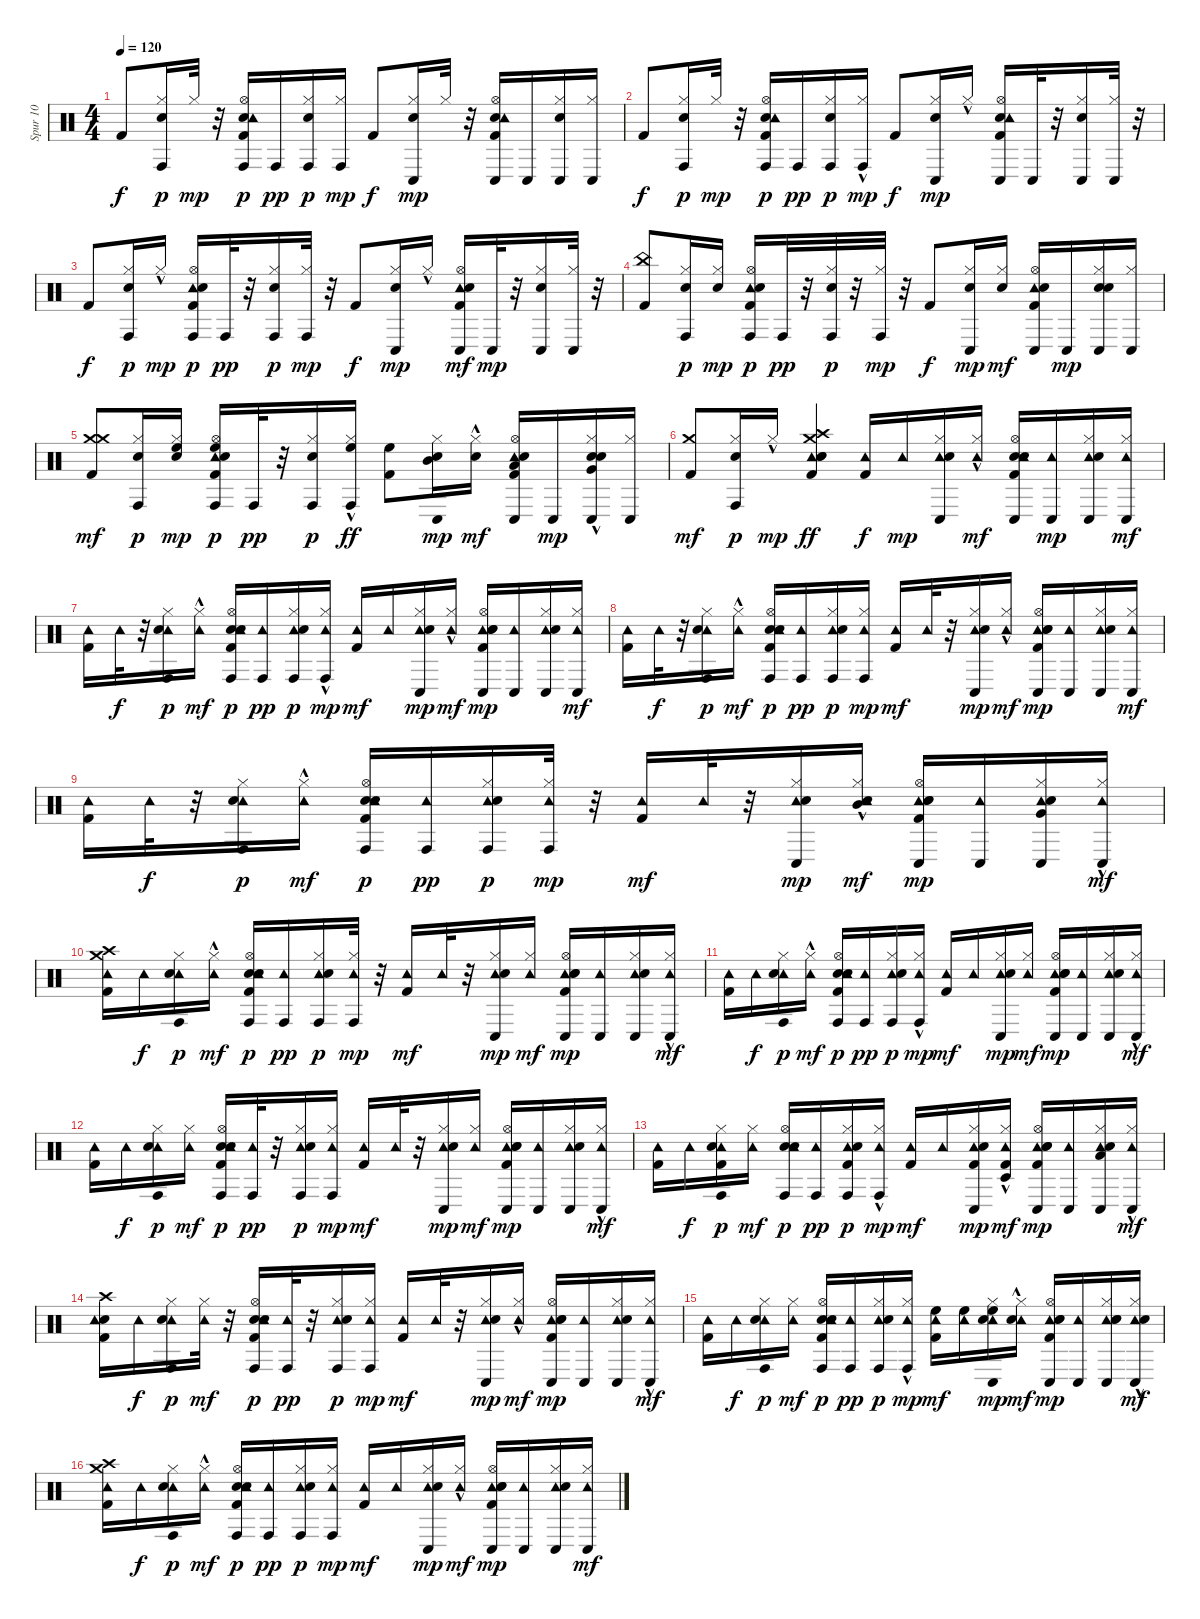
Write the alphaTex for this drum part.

\track ("Spur 10" "Spur 10") {instrument percussion}
\staff {score}
\articulation defaults
\ts (4 4)
\tempo 120
\clef neutral
\ks c "Kick (hit) 2".8{dy f}
("Hi-Hat (closed)" "Snare (hit)" "Conga high (hit)").16{dy p} "Hi-Hat (closed)".32{dy mp} r.32 ("Hi-Hat (open)" "Snare (hit) 2" "Tambourine (hit)" "Kick (hit) 2" "Conga high (hit)").16{dy p} "Conga high (hit)".16{dy pp} ("Hi-Hat (closed)" "Snare (hit)" "Conga high (hit)").16{dy p} ("Hi-Hat (closed)" "Conga high (hit)").16{dy mp} "Kick (hit) 2".8{dy f} ("Hi-Hat (closed)" "Snare (hit)" "Conga low (hit)").16{dy mp} "Hi-Hat (closed)".32 r.32 ("Hi-Hat (open)" "Snare (hit) 2" "Kick (hit) 2" "Tambourine (hit)" "Conga low (hit)").16 "Conga low (hit)".16 ("Hi-Hat (closed)" "Snare (hit)" "Conga low (hit)").16 ("Conga low (hit)" "Hi-Hat (closed)").16 |
"Kick (hit) 2".8{dy f} ("Hi-Hat (closed)" "Snare (hit)" "Conga high (hit)").16{dy p} "Hi-Hat (closed)".32{dy mp} r.32 ("Hi-Hat (open)" "Snare (hit) 2" "Tambourine (hit)" "Kick (hit) 2" "Conga high (hit)").16{dy p} "Conga high (hit)".16{dy pp} ("Hi-Hat (closed)" "Snare (hit)" "Conga high (hit)").16{dy p} ("Hi-Hat (closed)"{hac} "Conga high (hit)").16{dy mp} "Kick (hit) 2".8{dy f} ("Hi-Hat (closed)" "Snare (hit)" "Conga low (hit)").16{dy mp} "Hi-Hat (closed)"{hac}.16 ("Hi-Hat (open)" "Snare (hit) 2" "Kick (hit) 2" "Tambourine (hit)" "Conga low (hit)").16 "Conga low (hit)".32 r.32 ("Hi-Hat (closed)" "Snare (hit)" "Conga low (hit)").16 ("Conga low (hit)" "Hi-Hat (closed)").32 r.32 |
"Kick (hit) 2".8{dy f} ("Hi-Hat (closed)" "Snare (hit)" "Conga high (hit)").16{dy p} "Hi-Hat (closed)"{hac}.16{dy mp} ("Hi-Hat (open)" "Tambourine (hit)" "Kick (hit) 2" "Snare (hit) 2" "Conga high (hit)").16{dy p} "Conga high (hit)".32{dy pp} r.32 ("Hi-Hat (closed)" "Snare (hit)" "Conga high (hit)").16{dy p} ("Hi-Hat (closed)" "Conga high (hit)").32{dy mp} r.32 "Kick (hit) 2".8{dy f} ("Hi-Hat (closed)" "Snare (hit)" "Conga low (hit)").16{dy mp} "Hi-Hat (closed)"{hac}.16 ("Hi-Hat (open)" "Kick (hit) 2" "Tambourine (hit)" "Conga low (hit)" "Snare (hit) 2").16{dy mf} "Conga low (hit)".32{dy mp} r.32 ("Hi-Hat (closed)" "Snare (hit)" "Conga low (hit)").16 ("Conga low (hit)" "Hi-Hat (closed)").32 r.32 |
("China (hit)" "Kick (hit) 2").8 ("Hi-Hat (closed)" "Snare (hit)" "Conga high (hit)").16{dy p} ("Hi-Hat (closed)" "Snare (hit) 2").16{dy mp} ("Hi-Hat (open)" "Tambourine (hit)" "Kick (hit) 2" "Snare (hit) 2" "Conga high (hit)").16{dy p} "Conga high (hit)".32{dy pp} r.32 ("Hi-Hat (closed)" "Snare (hit)" "Conga high (hit)").32{dy p} r.32 ("Hi-Hat (closed)" "Conga high (hit)").32{dy mp} r.32 "Kick (hit) 2".8{dy f} ("Hi-Hat (closed)" "Snare (hit)" "Conga low (hit)").16{dy mp} ("Hi-Hat (closed)" "Snare (hit) 2").16{dy mf} ("Hi-Hat (open)" "Kick (hit) 2" "Tambourine (hit)" "Conga low (hit)" "Snare (hit) 2").16 "Conga low (hit)".16{dy mp} ("Hi-Hat (closed)" "Snare (hit)" "Conga low (hit)" "Snare (hit) 2").16 ("Conga low (hit)" "Hi-Hat (closed)").16 |
("Crash medium (hit)" "Crash medium (hit)" "Kick (hit) 2").8{dy mf} ("Hi-Hat (closed)" "Snare (hit)" "Conga high (hit)").16{dy p} ("Hi-Hat (closed)" "Snare (hit) 2" "High Floor Tom (hit)").16{dy mp} ("High Floor Tom (hit)" "Hi-Hat (open)" "Tambourine (hit)" "Kick (hit) 2" "Snare (hit) 2" "Conga high (hit)").16{dy p} "Conga high (hit)".32{dy pp} r.32 ("Hi-Hat (closed)" "Snare (hit)" "Conga high (hit)").16{dy p} ("Hi-Hat (closed)"{hac} "Conga high (hit)" "High Floor Tom (hit)").16{dy ff} ("High Floor Tom (hit)" "Kick (hit) 2").8 ("Hi-Hat (closed)" "Snare (hit)" "Conga low (hit)" "Mid Tom (hit)").16{dy mp} ("Hi-Hat (closed)"{hac} "Snare (hit) 2").16{dy mf} ("Hi-Hat (open)" "Low Tom (hit)" "Kick (hit) 2" "Tambourine (hit)" "Conga low (hit)" "Snare (hit) 2").16 "Conga low (hit)".16{dy mp} ("Very Low Tom (hit)" "Hi-Hat (closed)" "Snare (hit)" "Conga low (hit)" "Snare (hit) 2"{hac}).16 ("Conga low (hit)" "Hi-Hat (closed)").16 |
("Crash medium (hit)" "Kick (hit) 2").8{dy mf} ("Hi-Hat (closed)" "Snare (hit)" "Conga high (hit)").16{dy p} "Hi-Hat (closed)"{hac}.16{dy mp} ("Crash high (hit)" "Tambourine (hit)" "Hand Clap (hit)" "Kick (hit) 2" "Snare (hit) 2" "Crash medium (hit)").4{dy ff} ("Tambourine (hit)" "Kick (hit) 2").16{dy f} "Tambourine (hit)".16{dy mp} ("Hi-Hat (closed)" "Tambourine (hit)" "Snare (hit)" "Conga low (hit)").16 ("Hi-Hat (closed)"{hac} "Tambourine (hit)").16{dy mf} ("Snare (hit) 2" "Hi-Hat (open)" "Tambourine (hit)" "Hand Clap (hit)" "Kick (hit) 2" "Conga low (hit)").16 ("Tambourine (hit)" "Conga low (hit)").16{dy mp} ("Hi-Hat (closed)" "Tambourine (hit)" "Snare (hit)" "Conga low (hit)").16 ("Conga low (hit)" "Hi-Hat (closed)" "Tambourine (hit)").16{dy mf} |
("Tambourine (hit)" "Kick (hit) 2").16 "Tambourine (hit)".32{dy f} r.32 ("Hi-Hat (closed)" "Tambourine (hit)" "Snare (hit)" "Conga high (hit)").16{dy p} ("Hi-Hat (closed)"{hac} "Tambourine (hit)").16{dy mf} ("Hand Clap (hit)" "Hi-Hat (open)" "Tambourine (hit)" "Snare (hit) 2" "Kick (hit) 2" "Conga high (hit)").16{dy p} ("Tambourine (hit)" "Conga high (hit)").16{dy pp} ("Hi-Hat (closed)" "Tambourine (hit)" "Snare (hit)" "Conga high (hit)").16{dy p} ("Hi-Hat (closed)"{hac} "Tambourine (hit)" "Conga high (hit)").16{dy mp} ("Tambourine (hit)" "Kick (hit) 2").16{dy mf} "Tambourine (hit)".16 ("Hi-Hat (closed)" "Tambourine (hit)" "Snare (hit)" "Conga low (hit)").16{dy mp} ("Hi-Hat (closed)"{hac} "Tambourine (hit)").16{dy mf} ("Hi-Hat (open)" "Tambourine (hit)" "Hand Clap (hit)" "Kick (hit) 2" "Conga low (hit)" "Snare (hit) 2").16{dy mp} ("Tambourine (hit)" "Conga low (hit)").16 ("Hi-Hat (closed)" "Tambourine (hit)" "Snare (hit)" "Conga low (hit)").16 ("Conga low (hit)" "Hi-Hat (closed)" "Tambourine (hit)").16{dy mf} |
("Tambourine (hit)" "Kick (hit) 2").16 "Tambourine (hit)".32{dy f} r.32 ("Hi-Hat (closed)" "Tambourine (hit)" "Snare (hit)" "Conga high (hit)").16{dy p} ("Hi-Hat (closed)"{hac} "Tambourine (hit)").16{dy mf} ("Hand Clap (hit)" "Hi-Hat (open)" "Tambourine (hit)" "Snare (hit) 2" "Kick (hit) 2" "Conga high (hit)").16{dy p} ("Tambourine (hit)" "Conga high (hit)").16{dy pp} ("Hi-Hat (closed)" "Tambourine (hit)" "Snare (hit)" "Conga high (hit)").16{dy p} ("Hi-Hat (closed)" "Tambourine (hit)" "Conga high (hit)").16{dy mp} ("Tambourine (hit)" "Kick (hit) 2").16{dy mf} "Tambourine (hit)".32 r.32 ("Hi-Hat (closed)" "Tambourine (hit)" "Snare (hit)" "Conga low (hit)").16{dy mp} ("Hi-Hat (closed)"{hac} "Tambourine (hit)").16{dy mf} ("Hi-Hat (open)" "Tambourine (hit)" "Hand Clap (hit)" "Kick (hit) 2" "Conga low (hit)" "Snare (hit) 2").16{dy mp} ("Tambourine (hit)" "Conga low (hit)").16 ("Hi-Hat (closed)" "Tambourine (hit)" "Snare (hit)" "Conga low (hit)").16 ("Conga low (hit)" "Hi-Hat (closed)" "Tambourine (hit)").16{dy mf} |
("Tambourine (hit)" "Kick (hit) 2").16 "Tambourine (hit)".32{dy f} r.32 ("Hi-Hat (closed)" "Tambourine (hit)" "Snare (hit)" "Conga high (hit)").16{dy p} ("Hi-Hat (closed)"{hac} "Tambourine (hit)").16{dy mf} ("Hand Clap (hit)" "Hi-Hat (open)" "Tambourine (hit)" "Snare (hit) 2" "Kick (hit) 2" "Conga high (hit)").16{dy p} ("Tambourine (hit)" "Conga high (hit)").16{dy pp} ("Hi-Hat (closed)" "Tambourine (hit)" "Snare (hit)" "Conga high (hit)").16{dy p} ("Hi-Hat (closed)" "Tambourine (hit)" "Conga high (hit)").32{dy mp} r.32 ("Tambourine (hit)" "Kick (hit) 2").16{dy mf} "Tambourine (hit)".32 r.32 ("Hi-Hat (closed)" "Tambourine (hit)" "Snare (hit)" "Conga low (hit)").16{dy mp} ("Hi-Hat (closed)"{hac} "Tambourine (hit)" "Mid Tom (hit)" "Snare (hit) 2").16{dy mf} ("Hi-Hat (open)" "Tambourine (hit)" "Hand Clap (hit)" "Kick (hit) 2" "Conga low (hit)" "Snare (hit) 2").16{dy mp} ("Tambourine (hit)" "Conga low (hit)").16 ("Hi-Hat (closed)" "Tambourine (hit)" "Snare (hit)" "Conga low (hit)" "Very Low Tom (hit)").16 ("Conga low (hit)" "Hi-Hat (closed)"{hac} "Tambourine (hit)").16{dy mf} |
("Crash high (hit)" "Crash medium (hit)" "Tambourine (hit)" "Kick (hit) 2").16 "Tambourine (hit)".16{dy f} ("Hi-Hat (closed)" "Tambourine (hit)" "Snare (hit)" "Conga high (hit)").16{dy p} ("Hi-Hat (closed)"{hac} "Tambourine (hit)").16{dy mf} ("Hand Clap (hit)" "Hi-Hat (open)" "Tambourine (hit)" "Snare (hit) 2" "Kick (hit) 2" "Conga high (hit)").16{dy p} ("Tambourine (hit)" "Conga high (hit)").16{dy pp} ("Hi-Hat (closed)" "Tambourine (hit)" "Snare (hit)" "Conga high (hit)").16{dy p} ("Hi-Hat (closed)" "Tambourine (hit)" "Conga high (hit)").32{dy mp} r.32 ("Tambourine (hit)" "Kick (hit) 2").16{dy mf} "Tambourine (hit)".32 r.32 ("Hi-Hat (closed)" "Tambourine (hit)" "Snare (hit)" "Conga low (hit)").16{dy mp} ("Hi-Hat (closed)" "Tambourine (hit)").16{dy mf} ("Hi-Hat (open)" "Tambourine (hit)" "Hand Clap (hit)" "Kick (hit) 2" "Conga low (hit)" "Snare (hit) 2").16{dy mp} ("Tambourine (hit)" "Conga low (hit)").16 ("Hi-Hat (closed)" "Tambourine (hit)" "Snare (hit)" "Conga low (hit)").16 ("Conga low (hit)" "Hi-Hat (closed)"{hac} "Tambourine (hit)").16{dy mf} |
("Tambourine (hit)" "Kick (hit) 2").16 "Tambourine (hit)".16{dy f} ("Hi-Hat (closed)" "Tambourine (hit)" "Snare (hit)" "Conga high (hit)").16{dy p} ("Hi-Hat (closed)"{hac} "Tambourine (hit)").16{dy mf} ("Hand Clap (hit)" "Hi-Hat (open)" "Tambourine (hit)" "Snare (hit) 2" "Kick (hit) 2" "Conga high (hit)").16{dy p} ("Tambourine (hit)" "Conga high (hit)").16{dy pp} ("Hi-Hat (closed)" "Tambourine (hit)" "Snare (hit)" "Conga high (hit)").16{dy p} ("Hi-Hat (closed)"{hac} "Tambourine (hit)" "Conga high (hit)").16{dy mp} ("Tambourine (hit)" "Kick (hit) 2").16{dy mf} "Tambourine (hit)".16 ("Hi-Hat (closed)" "Tambourine (hit)" "Snare (hit)" "Conga low (hit)").16{dy mp} ("Hi-Hat (closed)" "Tambourine (hit)").16{dy mf} ("Hi-Hat (open)" "Tambourine (hit)" "Hand Clap (hit)" "Kick (hit) 2" "Conga low (hit)" "Snare (hit) 2").16{dy mp} ("Tambourine (hit)" "Conga low (hit)").16 ("Hi-Hat (closed)" "Tambourine (hit)" "Snare (hit)" "Conga low (hit)").16 ("Conga low (hit)" "Hi-Hat (closed)"{hac} "Tambourine (hit)").16{dy mf} |
("Tambourine (hit)" "Kick (hit) 2").16 "Tambourine (hit)".16{dy f} ("Hi-Hat (closed)" "Tambourine (hit)" "Snare (hit)" "Conga high (hit)").16{dy p} ("Hi-Hat (closed)" "Tambourine (hit)").16{dy mf} ("Hand Clap (hit)" "Hi-Hat (open)" "Tambourine (hit)" "Snare (hit) 2" "Kick (hit) 2" "Conga high (hit)").16{dy p} ("Tambourine (hit)" "Conga high (hit)").32{dy pp} r.32 ("Hi-Hat (closed)" "Tambourine (hit)" "Snare (hit)" "Conga high (hit)").16{dy p} ("Hi-Hat (closed)" "Tambourine (hit)" "Conga high (hit)").16{dy mp} ("Tambourine (hit)" "Kick (hit) 2").16{dy mf} "Tambourine (hit)".32 r.32 ("Hi-Hat (closed)" "Tambourine (hit)" "Snare (hit)" "Conga low (hit)").16{dy mp} ("Hi-Hat (closed)" "Tambourine (hit)").16{dy mf} ("Hi-Hat (open)" "Tambourine (hit)" "Hand Clap (hit)" "Kick (hit) 2" "Conga low (hit)" "Snare (hit) 2").16{dy mp} ("Tambourine (hit)" "Conga low (hit)").16 ("Hi-Hat (closed)" "Tambourine (hit)" "Snare (hit)" "Conga low (hit)").16 ("Conga low (hit)" "Hi-Hat (closed)"{hac} "Tambourine (hit)").16{dy mf} |
("Tambourine (hit)" "Kick (hit) 2").16 "Tambourine (hit)".16{dy f} ("Hi-Hat (closed)" "Tambourine (hit)" "Snare (hit)" "Kick (hit) 2" "Conga high (hit)").16{dy p} ("Hi-Hat (closed)" "Tambourine (hit)").16{dy mf} ("Hand Clap (hit)" "Hi-Hat (open)" "Tambourine (hit)" "Snare (hit) 2" "Conga high (hit)").16{dy p} ("Tambourine (hit)" "Conga high (hit)").16{dy pp} ("Hi-Hat (closed)" "Tambourine (hit)" "Snare (hit)" "Kick (hit) 2" "Conga high (hit)").16{dy p} ("Hi-Hat (closed)"{hac} "Tambourine (hit)" "Conga high (hit)").16{dy mp} ("Tambourine (hit)" "Kick (hit) 2").16{dy mf} "Tambourine (hit)".16 ("Kick (hit) 2" "Hi-Hat (closed)" "Tambourine (hit)" "Snare (hit)" "Conga low (hit)").16{dy mp} ("Kick (hit) 2" "Hi-Hat (closed)"{hac} "Tambourine (hit)" "Timbale low (hit)").16{dy mf} ("Hi-Hat (open)" "Tambourine (hit)" "Snare (hit) 2" "Kick (hit) 2" "Conga low (hit)" "Snare (hit) 2").16{dy mp} ("Tambourine (hit)" "Conga low (hit)").16 ("Hi-Hat (closed)" "Tambourine (hit)" "Low Floor Tom (hit)" "Snare (hit)" "Conga low (hit)").16 ("Conga low (hit)" "Hi-Hat (closed)"{hac} "Tambourine (hit)").16{dy mf} |
("Crash high (hit)" "Snare (hit) 2" "Tambourine (hit)" "Kick (hit) 2").16 "Tambourine (hit)".16{dy f} ("Hi-Hat (closed)" "Tambourine (hit)" "Snare (hit)" "Conga high (hit)").16{dy p} ("Hi-Hat (closed)" "Tambourine (hit)").32{dy mf} r.32 ("Hand Clap (hit)" "Hi-Hat (open)" "Tambourine (hit)" "Snare (hit) 2" "Kick (hit) 2" "Conga high (hit)").16{dy p} ("Tambourine (hit)" "Conga high (hit)").32{dy pp} r.32 ("Hi-Hat (closed)" "Tambourine (hit)" "Snare (hit)" "Conga high (hit)").16{dy p} ("Hi-Hat (closed)" "Tambourine (hit)" "Conga high (hit)").16{dy mp} ("Tambourine (hit)" "Kick (hit) 2").16{dy mf} "Tambourine (hit)".32 r.32 ("Hi-Hat (closed)" "Tambourine (hit)" "Snare (hit)" "Conga low (hit)").16{dy mp} ("Hi-Hat (closed)"{hac} "Tambourine (hit)").16{dy mf} ("Hi-Hat (open)" "Tambourine (hit)" "Hand Clap (hit)" "Kick (hit) 2" "Conga low (hit)" "Snare (hit) 2").16{dy mp} ("Tambourine (hit)" "Conga low (hit)").16 ("Hi-Hat (closed)" "Tambourine (hit)" "Snare (hit)" "Conga low (hit)").16 ("Conga low (hit)" "Hi-Hat (closed)"{hac} "Tambourine (hit)").16{dy mf} |
("Tambourine (hit)" "Kick (hit) 2").16 "Tambourine (hit)".16{dy f} ("Hi-Hat (closed)" "Tambourine (hit)" "Snare (hit)" "Conga high (hit)").16{dy p} ("Hi-Hat (closed)" "Tambourine (hit)").16{dy mf} ("Hand Clap (hit)" "Hi-Hat (open)" "Tambourine (hit)" "Snare (hit) 2" "Kick (hit) 2" "Conga high (hit)").16{dy p} ("Tambourine (hit)" "Conga high (hit)").16{dy pp} ("Hi-Hat (closed)" "Tambourine (hit)" "Snare (hit)" "Conga high (hit)").16{dy p} ("Hi-Hat (closed)"{hac} "Tambourine (hit)" "Conga high (hit)").16{dy mp} ("Tambourine (hit)" "Kick (hit) 2" "High Floor Tom (hit)").16{dy mf} ("Tambourine (hit)" "High Floor Tom (hit)").16 ("Hi-Hat (closed)" "Tambourine (hit)" "Snare (hit)" "Conga low (hit)" "High Floor Tom (hit)").16{dy mp} ("Hi-Hat (closed)"{hac} "Tambourine (hit)" "Snare (hit) 2").16{dy mf} ("Hi-Hat (open)" "Tambourine (hit)" "Hand Clap (hit)" "Snare (hit) 2" "Kick (hit) 2" "Conga low (hit)").16{dy mp} ("Tambourine (hit)" "Conga low (hit)").16 ("Hi-Hat (closed)" "Tambourine (hit)" "Snare (hit)" "Conga low (hit)" "Snare (hit) 2").16 ("Hi-Hat (closed)"{hac} "Tambourine (hit)" "Conga low (hit)" "Snare (hit) 2").16{dy mf} |
("Crash medium (hit)" "Crash high (hit)" "Tambourine (hit)" "Kick (hit) 2").16 "Tambourine (hit)".16{dy f} ("Hi-Hat (closed)" "Tambourine (hit)" "Snare (hit)" "Conga high (hit)").16{dy p} ("Hi-Hat (closed)"{hac} "Tambourine (hit)").16{dy mf} ("Hand Clap (hit)" "Hi-Hat (open)" "Tambourine (hit)" "Snare (hit) 2" "Kick (hit) 2" "Conga high (hit)").16{dy p} ("Tambourine (hit)" "Conga high (hit)").16{dy pp} ("Hi-Hat (closed)" "Tambourine (hit)" "Snare (hit)" "Conga high (hit)").16{dy p} ("Hi-Hat (closed)" "Tambourine (hit)" "Conga high (hit)").16{dy mp} ("Tambourine (hit)" "Kick (hit) 2").16{dy mf} "Tambourine (hit)".16 ("Hi-Hat (closed)" "Tambourine (hit)" "Snare (hit)" "Conga low (hit)").16{dy mp} ("Hi-Hat (closed)"{hac} "Tambourine (hit)").16{dy mf} ("Hi-Hat (open)" "Tambourine (hit)" "Hand Clap (hit)" "Kick (hit) 2" "Conga low (hit)" "Snare (hit) 2").16{dy mp} ("Tambourine (hit)" "Conga low (hit)").16 ("Hi-Hat (closed)" "Tambourine (hit)" "Snare (hit)" "Conga low (hit)").16 ("Conga low (hit)" "Hi-Hat (closed)" "Tambourine (hit)").16{dy mf}
